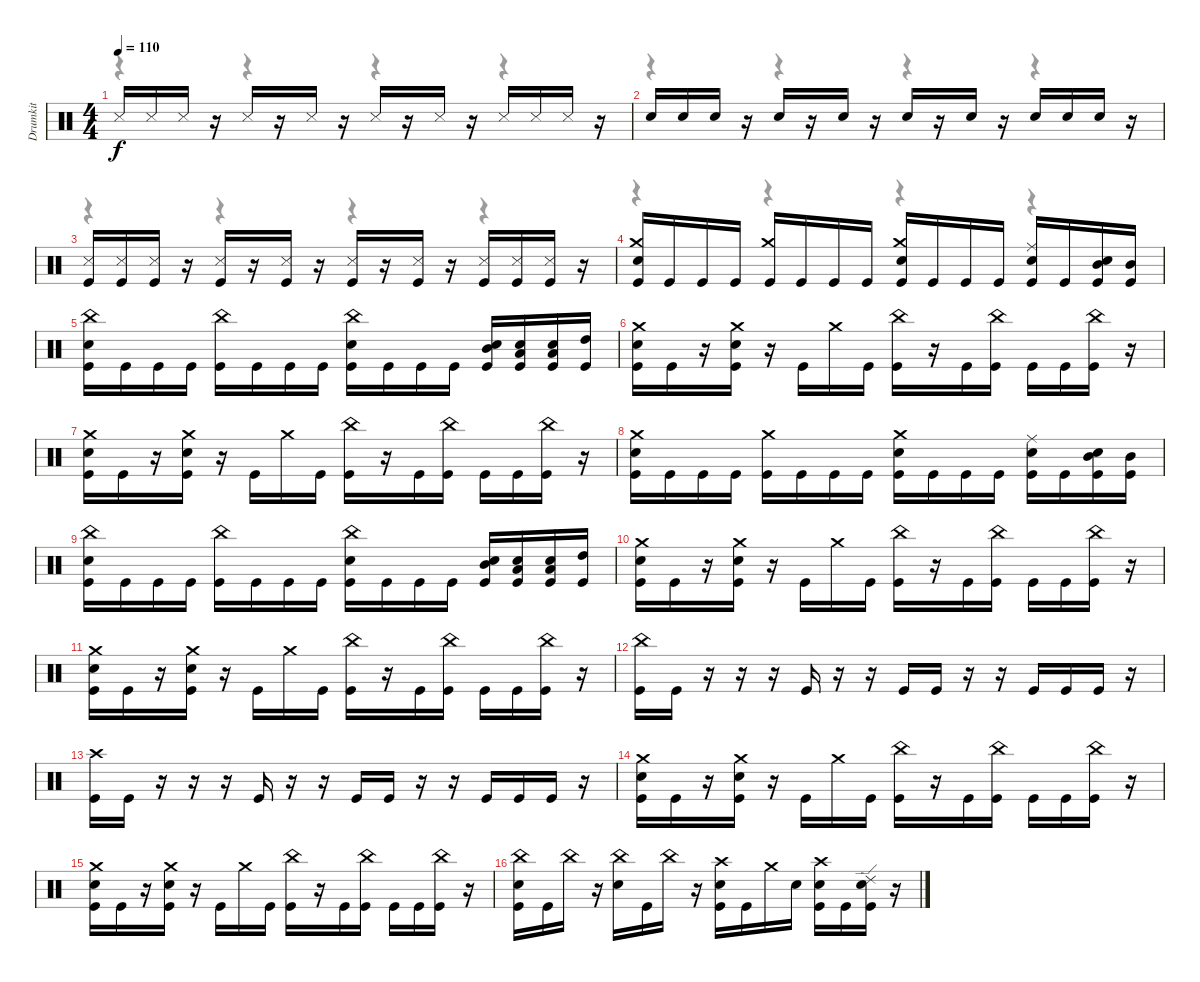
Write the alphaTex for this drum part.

\track ("Drumkit" "Drumkit") {instrument percussion}
\staff {score}
\articulation defaults
\voice
\ts (4 4)
\tempo 110
\clef neutral
\ks c "Snare (side stick) 3".16{dy f} "Snare (side stick) 3".16 "Snare (side stick) 3".16
r.16 "Snare (side stick) 3".16 r.16 "Snare (side stick) 3".16 r.16 "Snare (side stick) 3".16 r.16 "Snare (side stick) 3".16 r.16 "Snare (side stick) 3".16 "Snare (side stick) 3".16 "Snare (side stick) 3".16 r.16 |
"Snare (hit) 2".16 "Snare (hit) 2".16 "Snare (hit) 2".16 r.16 "Snare (hit) 2".16 r.16 "Snare (hit) 2".16 r.16 "Snare (hit) 2".16 r.16 "Snare (hit) 2".16 r.16 "Snare (hit) 2".16 "Snare (hit) 2".16 "Snare (hit) 2".16 r.16 |
("Snare (side stick) 3" "Kick (hit)").16 ("Snare (side stick) 3" "Kick (hit)").16 ("Snare (side stick) 3" "Kick (hit)").16 r.16 ("Snare (side stick) 3" "Kick (hit)").16 r.16 ("Snare (side stick) 3" "Kick (hit)").16 r.16 ("Snare (side stick) 3" "Kick (hit)").16 r.16 ("Snare (side stick) 3" "Kick (hit)").16 r.16 ("Snare (side stick) 3" "Kick (hit)").16 ("Snare (side stick) 3" "Kick (hit)").16 ("Snare (side stick) 3" "Kick (hit)").16 r.16 |
("Crash medium (hit)" "Snare (hit) 2" "Kick (hit)").16 "Kick (hit)".16 "Kick (hit)".16 "Kick (hit)".16 ("Crash medium (hit)" "Kick (hit)").16 "Kick (hit)".16 "Kick (hit)".16 "Kick (hit)".16 ("Crash medium (hit)" "Snare (hit) 2" "Kick (hit)").16 "Kick (hit)".16 "Kick (hit)".16 "Kick (hit)".16 ("Ride (middle)" "Snare (hit) 2" "Kick (hit)").16 "Kick (hit)".16 ("Mid Tom (hit)" "Snare (hit) 2" "Kick (hit)").16 ("Mid Tom (hit)" "Kick (hit)").16 |
("China (hit)" "Snare (hit) 2" "Kick (hit)").16 "Kick (hit)".16 "Kick (hit)".16 "Kick (hit)".16 ("China (hit)" "Kick (hit)").16 "Kick (hit)".16 "Kick (hit)".16 "Kick (hit)".16 ("China (hit)" "Snare (hit) 2" "Kick (hit)").16 "Kick (hit)".16 "Kick (hit)".16 "Kick (hit)".16 ("Mid Tom (hit)" "Snare (hit) 2" "Kick (hit)").16 ("Low Tom (hit)" "Snare (hit) 2" "Kick (hit)").16 ("Low Floor Tom (hit)" "Snare (hit) 2" "Kick (hit)").16 ("High Tom (hit)" "Kick (hit)").16 |
("Crash medium (hit)" "Snare (hit) 2" "Kick (hit)").16 "Kick (hit)".16 r.16 ("Crash medium (hit)" "Snare (hit) 2" "Kick (hit)").16 r.16 "Kick (hit)".16 "Crash medium (hit)".16 "Kick (hit)".16 ("China (hit)" "Kick (hit)").16 r.16 "Kick (hit)".16 ("China (hit)" "Kick (hit)").16 "Kick (hit)".16 "Kick (hit)".16 ("China (hit)" "Kick (hit)").16 r.16 |
("Crash medium (hit)" "Snare (hit) 2" "Kick (hit)").16 "Kick (hit)".16 r.16 ("Crash medium (hit)" "Snare (hit) 2" "Kick (hit)").16 r.16 "Kick (hit)".16 "Crash medium (hit)".16 "Kick (hit)".16 ("China (hit)" "Kick (hit)").16 r.16 "Kick (hit)".16 ("China (hit)" "Kick (hit)").16 "Kick (hit)".16 "Kick (hit)".16 ("China (hit)" "Kick (hit)").16 r.16 |
("Crash medium (hit)" "Snare (hit) 2" "Kick (hit)").16 "Kick (hit)".16 "Kick (hit)".16 "Kick (hit)".16 ("Crash medium (hit)" "Kick (hit)").16 "Kick (hit)".16 "Kick (hit)".16 "Kick (hit)".16 ("Crash medium (hit)" "Snare (hit) 2" "Kick (hit)").16 "Kick (hit)".16 "Kick (hit)".16 "Kick (hit)".16 ("Ride (middle)" "Snare (hit) 2" "Kick (hit)").16 "Kick (hit)".16 ("Mid Tom (hit)" "Snare (hit) 2" "Kick (hit)").16 ("Mid Tom (hit)" "Kick (hit)").16 |
("China (hit)" "Snare (hit) 2" "Kick (hit)").16 "Kick (hit)".16 "Kick (hit)".16 "Kick (hit)".16 ("China (hit)" "Kick (hit)").16 "Kick (hit)".16 "Kick (hit)".16 "Kick (hit)".16 ("China (hit)" "Snare (hit) 2" "Kick (hit)").16 "Kick (hit)".16 "Kick (hit)".16 "Kick (hit)".16 ("Mid Tom (hit)" "Snare (hit) 2" "Kick (hit)").16 ("Low Tom (hit)" "Snare (hit) 2" "Kick (hit)").16 ("Low Floor Tom (hit)" "Snare (hit) 2" "Kick (hit)").16 ("High Tom (hit)" "Kick (hit)").16 |
("Crash medium (hit)" "Snare (hit) 2" "Kick (hit)").16 "Kick (hit)".16 r.16 ("Crash medium (hit)" "Snare (hit) 2" "Kick (hit)").16 r.16 "Kick (hit)".16 "Crash medium (hit)".16 "Kick (hit)".16 ("China (hit)" "Kick (hit)").16 r.16 "Kick (hit)".16 ("China (hit)" "Kick (hit)").16 "Kick (hit)".16 "Kick (hit)".16 ("China (hit)" "Kick (hit)").16 r.16 |
("Crash medium (hit)" "Snare (hit) 2" "Kick (hit)").16 "Kick (hit)".16 r.16 ("Crash medium (hit)" "Snare (hit) 2" "Kick (hit)").16 r.16 "Kick (hit)".16 "Crash medium (hit)".16 "Kick (hit)".16 ("China (hit)" "Kick (hit)").16 r.16 "Kick (hit)".16 ("China (hit)" "Kick (hit)").16 "Kick (hit)".16 "Kick (hit)".16 ("China (hit)" "Kick (hit)").16 r.16 |
("China (hit)" "Kick (hit)").16 "Kick (hit)".16 r.16 r.16 r.16 "Kick (hit)".16 r.16 r.16 "Kick (hit)".16 "Kick (hit)".16 r.16 r.16 "Kick (hit)".16 "Kick (hit)".16 "Kick (hit)".16 r.16 |
("Crash high (hit)" "Kick (hit)").16 "Kick (hit)".16 r.16 r.16 r.16 "Kick (hit)".16 r.16 r.16 "Kick (hit)".16 "Kick (hit)".16 r.16 r.16 "Kick (hit)".16 "Kick (hit)".16 "Kick (hit)".16 r.16 |
("Crash medium (hit)" "Snare (hit) 2" "Kick (hit)").16 "Kick (hit)".16 r.16 ("Crash medium (hit)" "Snare (hit) 2" "Kick (hit)").16 r.16 "Kick (hit)".16 "Crash medium (hit)".16 "Kick (hit)".16 ("China (hit)" "Kick (hit)").16 r.16 "Kick (hit)".16 ("China (hit)" "Kick (hit)").16 "Kick (hit)".16 "Kick (hit)".16 ("China (hit)" "Kick (hit)").16 r.16 |
("Crash medium (hit)" "Snare (hit) 2" "Kick (hit)").16 "Kick (hit)".16 r.16 ("Crash medium (hit)" "Snare (hit) 2" "Kick (hit)").16 r.16 "Kick (hit)".16 "Crash medium (hit)".16 "Kick (hit)".16 ("China (hit)" "Kick (hit)").16 r.16 "Kick (hit)".16 ("China (hit)" "Kick (hit)").16 "Kick (hit)".16 "Kick (hit)".16 ("China (hit)" "Kick (hit)").16 r.16 |
("China (hit)" "Snare (hit) 2" "Kick (hit)").16 "Kick (hit)".16 "China (hit)".16 r.16 ("China (hit)" "Snare (hit) 2").16 "Kick (hit)".16 "China (hit)".16 r.16 ("Crash high (hit)" "Snare (hit) 2" "Kick (hit)").16 "Kick (hit)".16 "Crash medium (hit)".16 "Snare (hit) 2".16 ("Crash high (hit)" "Snare (hit) 2" "Kick (hit)").16 "Kick (hit)".16 ("Ride (edge) 2" "Snare (hit) 2" "Kick (hit)").16 r.16
\voice
\clef neutral
\ottava regular
\simile none
\ks c
r.4{dy f} r.4 r.4 r.4 |
r.4 r.4 r.4 r.4 |
r.4 r.4 r.4 r.4 |
r.4 r.4 r.4 r.4 |
|
|
|
|
|
|
|
|
|
|
|
